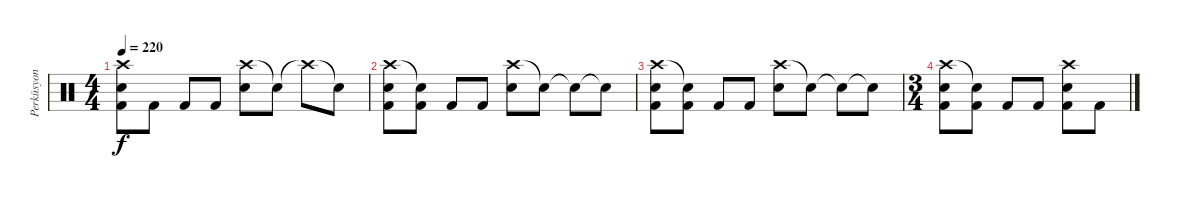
\track ("Perküsyon" "Perküsyon") {instrument percussion}
\staff {score}
\articulation defaults
\ts (4 4)
\tempo 220
\clef neutral
\ks c
("Crash high (hit)" "Electric Snare (hit)" "Kick (hit) 2").8{dy f} "Kick (hit) 2".8 "Kick (hit) 2".8 "Kick (hit) 2".8 ("Crash high (hit)" "Electric Snare (hit)").8 "Snare (hit)"{t}.8 "Crash high (hit)"{t}.8 "Snare (hit)"{t}.8 |
("Crash high (hit)" "Electric Snare (hit)" "Kick (hit) 2").8 ("Snare (hit)"{t} "Kick (hit) 2").8 "Kick (hit) 2".8 "Kick (hit) 2".8 ("Crash high (hit)" "Electric Snare (hit)").8 "Snare (hit)"{t}.8 "Snare (hit)"{t}.8 "Snare (hit)"{t}.8 |
("Crash high (hit)" "Electric Snare (hit)" "Kick (hit) 2").8 ("Snare (hit)"{t} "Kick (hit) 2").8 "Kick (hit) 2".8 "Kick (hit) 2".8 ("Crash high (hit)" "Electric Snare (hit)").8 "Snare (hit)"{t}.8 "Snare (hit)"{t}.8 "Snare (hit)"{t}.8 |
\ts (3 4)
("Crash high (hit)" "Electric Snare (hit)" "Kick (hit) 2").8 ("Snare (hit)"{t} "Kick (hit) 2").8 "Kick (hit) 2".8 "Kick (hit) 2".8 ("Crash high (hit)" "Electric Snare (hit)" "Kick (hit) 2").8 "Kick (hit) 2".8
